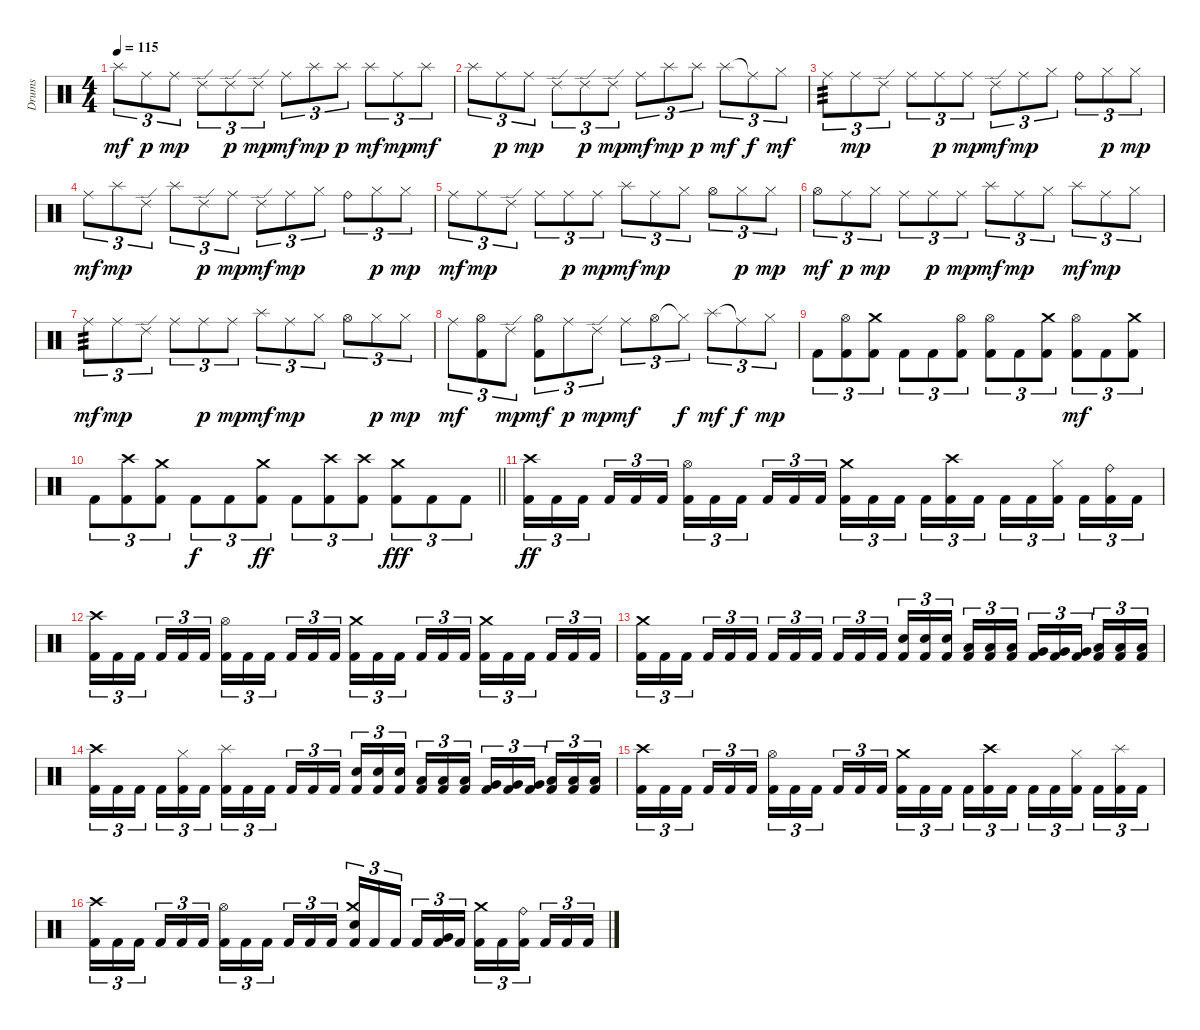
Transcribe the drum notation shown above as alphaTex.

\track ("Drums" "Drums") {instrument percussion}
\staff {score}
\articulation defaults
\ts (4 4)
\tempo 115
\clef neutral
\ks c "Splash (hit)".8{tu (3 2) dy mf} "Ride (middle)".8{tu (3 2) dy p} "Ride (middle)".8{tu (3 2) dy mp} "Ride (edge) 2".8{tu (3 2)} "Ride (edge) 2".8{tu (3 2) dy p} "Ride (edge) 2".8{tu (3 2) dy mp} "Ride (middle)".8{tu (3 2) dy mf} "Splash (hit)".8{tu (3 2) dy mp} "Splash (hit)".8{tu (3 2) dy p} "Splash (hit)".8{tu (3 2) dy mf} "Ride (middle)".8{tu (3 2) dy mp} "Splash (hit)".8{tu (3 2) dy mf}
|
"Splash (hit)".8{tu (3 2)} "Ride (middle)".8{tu (3 2) dy p} "Ride (middle)".8{tu (3 2) dy mp} "Ride (edge) 2".8{tu (3 2)} "Ride (edge) 2".8{tu (3 2) dy p} "Ride (edge) 2".8{tu (3 2) dy mp} "Ride (middle)".8{tu (3 2) dy mf} "Splash (hit)".8{tu (3 2) dy mp} "Splash (hit)".8{tu (3 2) dy p} "Splash (hit)".8{tu (3 2) dy mf} "Ride (middle)"{t}.8{tu (3 2) dy f} "Hi-Hat (closed)".8{tu (3 2) dy mf} |
"Ride (middle)".8{tu (3 2) tp 3} "Ride (middle)".8{tu (3 2) dy mp} "Ride (edge) 2".8{tu (3 2)} "Ride (middle)".8{tu (3 2)} "Ride (middle)".8{tu (3 2) dy p} "Ride (middle)".8{tu (3 2) dy mp} "Ride (edge) 2".8{tu (3 2) dy mf} "Ride (middle)".8{tu (3 2) dy mp} "Hi-Hat (closed)".8{tu (3 2)} "Ride (bell)".8{tu (3 2)} "Hi-Hat (closed)".8{tu (3 2) dy p} "Hi-Hat (closed)".8{tu (3 2) dy mp} |
"Ride (middle)".8{tu (3 2) dy mf} "Splash (hit)".8{tu (3 2) dy mp} "Ride (edge) 2".8{tu (3 2)} "Splash (hit)".8{tu (3 2)} "Ride (edge) 2".8{tu (3 2) dy p} "Ride (middle)".8{tu (3 2) dy mp} "Ride (edge) 2".8{tu (3 2) dy mf} "Ride (middle)".8{tu (3 2) dy mp} "Hi-Hat (closed)".8{tu (3 2)} "Ride (bell)".8{tu (3 2)} "Hi-Hat (closed)".8{tu (3 2) dy p} "Hi-Hat (closed)".8{tu (3 2) dy mp} |
"Ride (middle)".8{tu (3 2) dy mf} "Ride (middle)".8{tu (3 2) dy mp} "Ride (edge) 2".8{tu (3 2)} "Ride (middle)".8{tu (3 2)} "Ride (middle)".8{tu (3 2) dy p} "Ride (middle)".8{tu (3 2) dy mp} "Splash (hit)".8{tu (3 2) dy mf} "Ride (middle)".8{tu (3 2) dy mp} "Hi-Hat (closed)".8{tu (3 2)} "Hi-Hat (open)".8{tu (3 2)} "Hi-Hat (closed)".8{tu (3 2) dy p} "Hi-Hat (closed)".8{tu (3 2) dy mp} |
"Hi-Hat (open)".8{tu (3 2) dy mf} "Ride (middle)".8{tu (3 2) dy p} "Hi-Hat (closed)".8{tu (3 2) dy mp} "Ride (middle)".8{tu (3 2)} "Ride (middle)".8{tu (3 2) dy p} "Ride (middle)".8{tu (3 2) dy mp} "Splash (hit)".8{tu (3 2) dy mf} "Ride (middle)".8{tu (3 2) dy mp} "Hi-Hat (closed)".8{tu (3 2)} "Splash (hit)".8{tu (3 2) dy mf} "Ride (middle)".8{tu (3 2) dy mp} "Hi-Hat (closed)".8{tu (3 2)} |
"Ride (middle)".8{tu (3 2) tp 3 dy mf} "Ride (middle)".8{tu (3 2) dy mp} "Ride (edge) 2".8{tu (3 2)} "Ride (middle)".8{tu (3 2)} "Ride (middle)".8{tu (3 2) dy p} "Ride (middle)".8{tu (3 2) dy mp} "Splash (hit)".8{tu (3 2) dy mf} "Ride (middle)".8{tu (3 2) dy mp} "Hi-Hat (closed)".8{tu (3 2)} "Hi-Hat (open)".8{tu (3 2)} "Hi-Hat (closed)".8{tu (3 2) dy p} "Hi-Hat (closed)".8{tu (3 2) dy mp} |
"Ride (middle)".8{tu (3 2) dy mf} ("Hi-Hat (open)" "Kick (hit) 2").8{tu (3 2)} "Ride (edge) 2".8{tu (3 2) dy mp} ("Hi-Hat (open)" "Kick (hit) 2").8{tu (3 2) dy mf} "Ride (middle)".8{tu (3 2) dy p} "Ride (edge) 2".8{tu (3 2) dy mp} "Ride (middle)".8{tu (3 2) dy mf} "Hi-Hat (open)".8{tu (3 2)} "Hi-Hat (closed)"{t}.8{tu (3 2) dy f} "Splash (hit)".8{tu (3 2) dy mf} "Ride (middle)"{t}.8{tu (3 2) dy f} "Hi-Hat (closed)".8{tu (3 2) dy mp} |
"Kick (hit) 2".8{tu (3 2)} ("Hi-Hat (open)" "Kick (hit) 2").8{tu (3 2)} ("Crash medium (hit)" "Kick (hit) 2").8{tu (3 2)} "Kick (hit) 2".8{tu (3 2)} "Kick (hit) 2".8{tu (3 2)} ("Hi-Hat (open)" "Kick (hit) 2").8{tu (3 2)} ("Hi-Hat (open)" "Kick (hit) 2").8{tu (3 2)} "Kick (hit) 2".8{tu (3 2)} ("Crash medium (hit)" "Kick (hit) 2").8{tu (3 2)} ("Hi-Hat (open)" "Kick (hit) 2").8{tu (3 2) dy mf} "Kick (hit) 2".8{tu (3 2)} ("Crash medium (hit)" "Kick (hit) 2").8{tu (3 2)} |
\barLineRight lightlight "Kick (hit) 2".8{tu (3 2)}
("Crash high (hit)" "Kick (hit) 2").8{tu (3 2)} ("Crash medium (hit)" "Kick (hit) 2").8{tu (3 2)} "Kick (hit) 2".8{tu (3 2) dy f} "Kick (hit) 2".8{tu (3 2)} ("Crash medium (hit)" "Kick (hit) 2").8{tu (3 2) dy ff} "Kick (hit) 2".8{tu (3 2)} ("Crash high (hit)" "Kick (hit) 2").8{tu (3 2)} ("Crash high (hit)" "Kick (hit) 2").8{tu (3 2)} ("Crash medium (hit)" "Kick (hit) 2").8{tu (3 2) dy fff} "Kick (hit) 2".8{tu (3 2)} "Kick (hit) 2".8{tu (3 2)} |
\section ("" "")
("Crash high (hit)" "Kick (hit) 2").16{tu (3 2) dy ff} "Kick (hit) 2".16{tu (3 2)} "Kick (hit) 2".16{tu (3 2) beam splitsecondary} "Kick (hit) 2".16{tu (3 2)} "Kick (hit) 2".16{tu (3 2)} "Kick (hit) 2".16{tu (3 2)} ("Hi-Hat (open)" "Kick (hit) 2").16{tu (3 2)} "Kick (hit) 2".16{tu (3 2)} "Kick (hit) 2".16{tu (3 2) beam splitsecondary} "Kick (hit) 2".16{tu (3 2)} "Kick (hit) 2".16{tu (3 2)} "Kick (hit) 2".16{tu (3 2)} ("Crash medium (hit)" "Kick (hit) 2").16{tu (3 2)} "Kick (hit) 2".16{tu (3 2)} "Kick (hit) 2".16{tu (3 2) beam splitsecondary} "Kick (hit) 2".16{tu (3 2)} ("Crash high (hit)" "Kick (hit) 2").16{tu (3 2)} "Kick (hit) 2".16{tu (3 2)} "Kick (hit) 2".16{tu (3 2)} "Kick (hit) 2".16{tu (3 2)} ("Hi-Hat (closed)" "Kick (hit) 2").16{tu (3 2) beam splitsecondary} "Kick (hit) 2".16{tu (3 2)} ("Ride (bell)" "Kick (hit) 2").16{tu (3 2)} "Kick (hit) 2".16{tu (3 2)} |
("Crash high (hit)" "Kick (hit) 2").16{tu (3 2)} "Kick (hit) 2".16{tu (3 2)} "Kick (hit) 2".16{tu (3 2) beam splitsecondary} "Kick (hit) 2".16{tu (3 2)} "Kick (hit) 2".16{tu (3 2)} "Kick (hit) 2".16{tu (3 2)} ("Hi-Hat (open)" "Kick (hit) 2").16{tu (3 2)} "Kick (hit) 2".16{tu (3 2)} "Kick (hit) 2".16{tu (3 2) beam splitsecondary} "Kick (hit) 2".16{tu (3 2)} "Kick (hit) 2".16{tu (3 2)} "Kick (hit) 2".16{tu (3 2)} ("Crash medium (hit)" "Kick (hit) 2").16{tu (3 2)} "Kick (hit) 2".16{tu (3 2)} "Kick (hit) 2".16{tu (3 2) beam splitsecondary} "Kick (hit) 2".16{tu (3 2)} "Kick (hit) 2".16{tu (3 2)} "Kick (hit) 2".16{tu (3 2)} ("Crash medium (hit)" "Kick (hit) 2").16{tu (3 2)} "Kick (hit) 2".16{tu (3 2)} "Kick (hit) 2".16{tu (3 2) beam splitsecondary} "Kick (hit) 2".16{tu (3 2)} "Kick (hit) 2".16{tu (3 2)} "Kick (hit) 2".16{tu (3 2)} |
("Crash medium (hit)" "Kick (hit) 2").16{tu (3 2)} "Kick (hit) 2".16{tu (3 2)} "Kick (hit) 2".16{tu (3 2) beam splitsecondary} "Kick (hit) 2".16{tu (3 2)} "Kick (hit) 2".16{tu (3 2)} "Kick (hit) 2".16{tu (3 2)} "Kick (hit) 2".16{tu (3 2)} "Kick (hit) 2".16{tu (3 2)} "Kick (hit) 2".16{tu (3 2) beam splitsecondary} "Kick (hit) 2".16{tu (3 2)} "Kick (hit) 2".16{tu (3 2)} "Kick (hit) 2".16{tu (3 2)} ("Snare (hit) 2" "Kick (hit) 2").16{tu (3 2)} ("Snare (hit) 2" "Kick (hit) 2").16{tu (3 2)} ("Snare (hit) 2" "Kick (hit) 2").16{tu (3 2) beam splitsecondary} ("Low Tom (hit)" "Kick (hit) 2").16{tu (3 2)} ("Low Tom (hit)" "Kick (hit) 2").16{tu (3 2)} ("Low Tom (hit)" "Kick (hit) 2").16{tu (3 2)} ("Very Low Tom (hit)" "Kick (hit) 2").16{tu (3 2)} ("Very Low Tom (hit)" "Kick (hit) 2").16{tu (3 2)} ("Very Low Tom (hit)" "Kick (hit) 2").16{tu (3 2) beam splitsecondary} ("Low Floor Tom (hit)" "Kick (hit) 2").16{tu (3 2)} ("Low Floor Tom (hit)" "Kick (hit) 2").16{tu (3 2)} ("Low Floor Tom (hit)" "Kick (hit) 2").16{tu (3 2)} |
("Crash high (hit)" "Kick (hit) 2").16{tu (3 2)} "Kick (hit) 2".16{tu (3 2)} "Kick (hit) 2".16{tu (3 2) beam splitsecondary} "Kick (hit) 2".16{tu (3 2)} ("Hi-Hat (closed)" "Kick (hit) 2").16{tu (3 2)} "Kick (hit) 2".16{tu (3 2)} ("Splash (hit)" "Kick (hit) 2").16{tu (3 2)} "Kick (hit) 2".16{tu (3 2)} "Kick (hit) 2".16{tu (3 2) beam splitsecondary} "Kick (hit) 2".16{tu (3 2)} "Kick (hit) 2".16{tu (3 2)} "Kick (hit) 2".16{tu (3 2)} ("Snare (hit) 2" "Kick (hit) 2").16{tu (3 2)} ("Snare (hit) 2" "Kick (hit) 2").16{tu (3 2)} ("Snare (hit) 2" "Kick (hit) 2").16{tu (3 2) beam splitsecondary} ("Low Tom (hit)" "Kick (hit) 2").16{tu (3 2)} ("Low Tom (hit)" "Kick (hit) 2").16{tu (3 2)} ("Low Tom (hit)" "Kick (hit) 2").16{tu (3 2)} ("Very Low Tom (hit)" "Kick (hit) 2").16{tu (3 2)} ("Very Low Tom (hit)" "Kick (hit) 2").16{tu (3 2)} ("Very Low Tom (hit)" "Kick (hit) 2").16{tu (3 2) beam splitsecondary} ("Low Floor Tom (hit)" "Kick (hit) 2").16{tu (3 2)} ("Low Floor Tom (hit)" "Kick (hit) 2").16{tu (3 2)} ("Low Floor Tom (hit)" "Kick (hit) 2").16{tu (3 2)} |
("Crash high (hit)" "Kick (hit) 2").16{tu (3 2)} "Kick (hit) 2".16{tu (3 2)} "Kick (hit) 2".16{tu (3 2) beam splitsecondary} "Kick (hit) 2".16{tu (3 2)} "Kick (hit) 2".16{tu (3 2)} "Kick (hit) 2".16{tu (3 2)} ("Hi-Hat (open)" "Kick (hit) 2").16{tu (3 2)} "Kick (hit) 2".16{tu (3 2)} "Kick (hit) 2".16{tu (3 2) beam splitsecondary} "Kick (hit) 2".16{tu (3 2)} "Kick (hit) 2".16{tu (3 2)} "Kick (hit) 2".16{tu (3 2)} ("Crash medium (hit)" "Kick (hit) 2").16{tu (3 2)} "Kick (hit) 2".16{tu (3 2)} "Kick (hit) 2".16{tu (3 2) beam splitsecondary} "Kick (hit) 2".16{tu (3 2)} ("Crash high (hit)" "Kick (hit) 2").16{tu (3 2)} "Kick (hit) 2".16{tu (3 2)} "Kick (hit) 2".16{tu (3 2)} "Kick (hit) 2".16{tu (3 2)} ("Hi-Hat (closed)" "Kick (hit) 2").16{tu (3 2) beam splitsecondary} "Kick (hit) 2".16{tu (3 2)} ("Splash (hit)" "Kick (hit) 2").16{tu (3 2)} "Kick (hit) 2".16{tu (3 2)} |
("Crash high (hit)" "Kick (hit) 2").16{tu (3 2)} "Kick (hit) 2".16{tu (3 2)} "Kick (hit) 2".16{tu (3 2) beam splitsecondary} "Kick (hit) 2".16{tu (3 2)} "Kick (hit) 2".16{tu (3 2)} "Kick (hit) 2".16{tu (3 2)} ("Hi-Hat (open)" "Kick (hit) 2").16{tu (3 2)} "Kick (hit) 2".16{tu (3 2)} "Kick (hit) 2".16{tu (3 2) beam splitsecondary} "Kick (hit) 2".16{tu (3 2)} "Kick (hit) 2".16{tu (3 2)} "Kick (hit) 2".16{tu (3 2)} ("Crash medium (hit)" "Snare (hit) 2" "Kick (hit) 2").16{tu (3 2)} "Kick (hit) 2".16{tu (3 2)} "Kick (hit) 2".16{tu (3 2) beam splitsecondary} "Kick (hit) 2".16{tu (3 2)} ("Very Low Tom (hit)" "Kick (hit) 2").16{tu (3 2)} "Kick (hit) 2".16{tu (3 2)} ("Crash medium (hit)" "Kick (hit) 2").16{tu (3 2)} "Kick (hit) 2".16{tu (3 2)} ("Ride (bell)" "Kick (hit) 2").16{tu (3 2) beam splitsecondary} "Kick (hit) 2".16{tu (3 2)} "Kick (hit) 2".16{tu (3 2)} "Kick (hit) 2".16{tu (3 2)}
